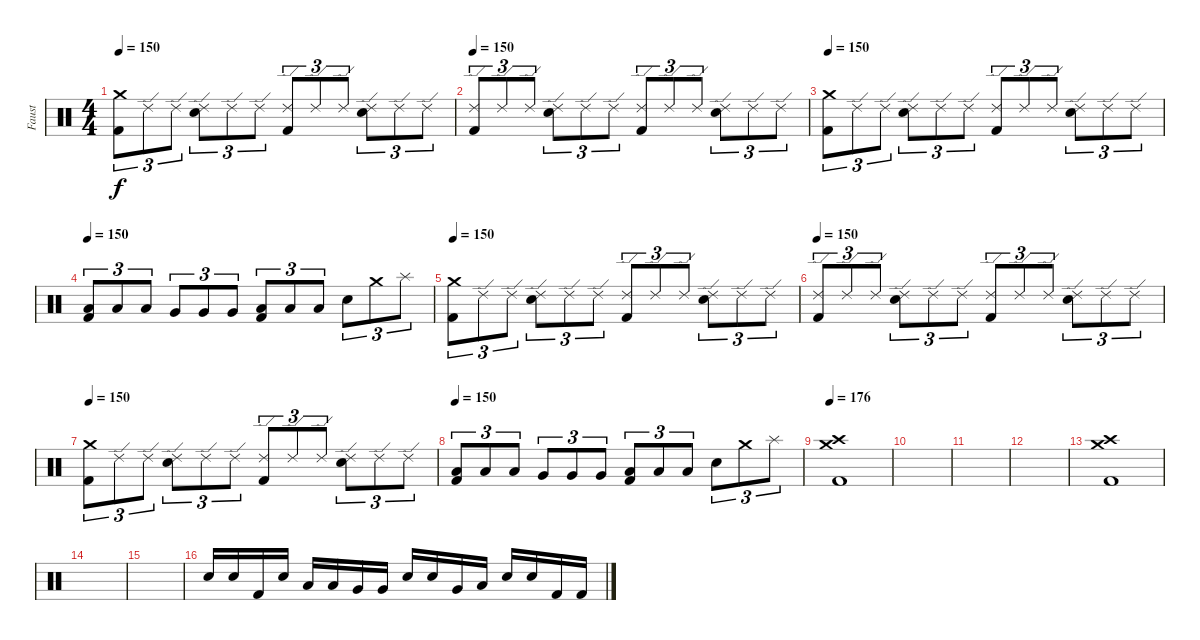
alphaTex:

\track ("Faust" "Faust") {instrument percussion}
\staff {score}
\articulation defaults
\ts (4 4)
\tempo 150
\clef neutral
\ks c
("Crash medium (hit)" "Kick (hit) 2").8{tu (3 2) dy f} "Ride (edge) 2".8{tu (3 2)} "Ride (edge) 2".8{tu (3 2)} ("Ride (edge) 2" "Electric Snare (hit)").8{tu (3 2)} "Ride (edge) 2".8{tu (3 2)} "Ride (edge) 2".8{tu (3 2)} ("Ride (edge) 2" "Kick (hit) 2").8{tu (3 2)} "Ride (edge) 2".8{tu (3 2)} "Ride (edge) 2".8{tu (3 2)} ("Ride (edge) 2" "Electric Snare (hit)").8{tu (3 2)} "Ride (edge) 2".8{tu (3 2)} "Ride (edge) 2".8{tu (3 2)} |
\tempo 150
("Ride (edge) 2" "Kick (hit) 2").8{tu (3 2)} "Ride (edge) 2".8{tu (3 2)} "Ride (edge) 2".8{tu (3 2)} ("Ride (edge) 2" "Electric Snare (hit)").8{tu (3 2)} "Ride (edge) 2".8{tu (3 2)} "Ride (edge) 2".8{tu (3 2)} ("Ride (edge) 2" "Kick (hit) 2").8{tu (3 2)} "Ride (edge) 2".8{tu (3 2)} "Ride (edge) 2".8{tu (3 2)} ("Ride (edge) 2" "Electric Snare (hit)").8{tu (3 2)} "Ride (edge) 2".8{tu (3 2)} "Ride (edge) 2".8{tu (3 2)} |
\tempo 150
("Crash medium (hit)" "Kick (hit) 2").8{tu (3 2)} "Ride (edge) 2".8{tu (3 2)} "Ride (edge) 2".8{tu (3 2)} ("Ride (edge) 2" "Electric Snare (hit)").8{tu (3 2)} "Ride (edge) 2".8{tu (3 2)} "Ride (edge) 2".8{tu (3 2)} ("Ride (edge) 2" "Kick (hit) 2").8{tu (3 2)} "Ride (edge) 2".8{tu (3 2)} "Ride (edge) 2".8{tu (3 2)} ("Ride (edge) 2" "Electric Snare (hit)").8{tu (3 2)} "Ride (edge) 2".8{tu (3 2)} "Ride (edge) 2".8{tu (3 2)} |
\tempo 150
("Low Tom (hit)" "Kick (hit) 2").8{tu (3 2)} "Low Tom (hit)".8{tu (3 2)} "Low Tom (hit)".8{tu (3 2)} "Very Low Tom (hit)".8{tu (3 2)} "Very Low Tom (hit)".8{tu (3 2)} "Very Low Tom (hit)".8{tu (3 2)} ("Low Floor Tom (hit)" "Kick (hit) 2").8{tu (3 2)} "Low Floor Tom (hit)".8{tu (3 2)} "Low Floor Tom (hit)".8{tu (3 2)} "Electric Snare (hit)".8{tu (3 2)} "Crash medium (hit)".8{tu (3 2)} "Splash (hit)".8{tu (3 2)} |
\tempo 150
("Crash medium (hit)" "Kick (hit) 2").8{tu (3 2)} "Ride (edge) 2".8{tu (3 2)} "Ride (edge) 2".8{tu (3 2)} ("Ride (edge) 2" "Electric Snare (hit)").8{tu (3 2)} "Ride (edge) 2".8{tu (3 2)} "Ride (edge) 2".8{tu (3 2)} ("Ride (edge) 2" "Kick (hit) 2").8{tu (3 2)} "Ride (edge) 2".8{tu (3 2)} "Ride (edge) 2".8{tu (3 2)} ("Ride (edge) 2" "Electric Snare (hit)").8{tu (3 2)} "Ride (edge) 2".8{tu (3 2)} "Ride (edge) 2".8{tu (3 2)} |
\tempo 150
("Ride (edge) 2" "Kick (hit) 2").8{tu (3 2)} "Ride (edge) 2".8{tu (3 2)} "Ride (edge) 2".8{tu (3 2)} ("Ride (edge) 2" "Electric Snare (hit)").8{tu (3 2)} "Ride (edge) 2".8{tu (3 2)} "Ride (edge) 2".8{tu (3 2)} ("Ride (edge) 2" "Kick (hit) 2").8{tu (3 2)} "Ride (edge) 2".8{tu (3 2)} "Ride (edge) 2".8{tu (3 2)} ("Ride (edge) 2" "Electric Snare (hit)").8{tu (3 2)} "Ride (edge) 2".8{tu (3 2)} "Ride (edge) 2".8{tu (3 2)} |
\tempo 150
("Crash medium (hit)" "Kick (hit) 2").8{tu (3 2)} "Ride (edge) 2".8{tu (3 2)} "Ride (edge) 2".8{tu (3 2)} ("Ride (edge) 2" "Electric Snare (hit)").8{tu (3 2)} "Ride (edge) 2".8{tu (3 2)} "Ride (edge) 2".8{tu (3 2)} ("Ride (edge) 2" "Kick (hit) 2").8{tu (3 2)} "Ride (edge) 2".8{tu (3 2)} "Ride (edge) 2".8{tu (3 2)} ("Ride (edge) 2" "Electric Snare (hit)").8{tu (3 2)} "Ride (edge) 2".8{tu (3 2)} "Ride (edge) 2".8{tu (3 2)} |
\tempo 150
("Low Tom (hit)" "Kick (hit) 2").8{tu (3 2)} "Low Tom (hit)".8{tu (3 2)} "Low Tom (hit)".8{tu (3 2)} "Very Low Tom (hit)".8{tu (3 2)} "Very Low Tom (hit)".8{tu (3 2)} "Very Low Tom (hit)".8{tu (3 2)} ("Low Floor Tom (hit)" "Kick (hit) 2").8{tu (3 2)} "Low Floor Tom (hit)".8{tu (3 2)} "Low Floor Tom (hit)".8{tu (3 2)} "Electric Snare (hit)".8{tu (3 2)} "Crash medium (hit)".8{tu (3 2)} "Splash (hit)".8{tu (3 2)} |
\tempo 176
("Crash medium (hit)" "Crash high (hit)" "Kick (hit) 2").1 |
|
|
|
("Crash medium (hit)" "Crash high (hit)" "Kick (hit) 2").1 |
|
|
"Electric Snare (hit)".16 "Electric Snare (hit)".16 "Kick (hit) 2".16 "Electric Snare (hit)".16 "Low Tom (hit)".16 "Low Tom (hit)".16 "Very Low Tom (hit)".16 "Very Low Tom (hit)".16 "Electric Snare (hit)".16 "Electric Snare (hit)".16 "Very Low Tom (hit)".16 "Low Floor Tom (hit)".16 "Electric Snare (hit)".16 "Electric Snare (hit)".16 "Kick (hit) 2".16 "Kick (hit) 2".16
